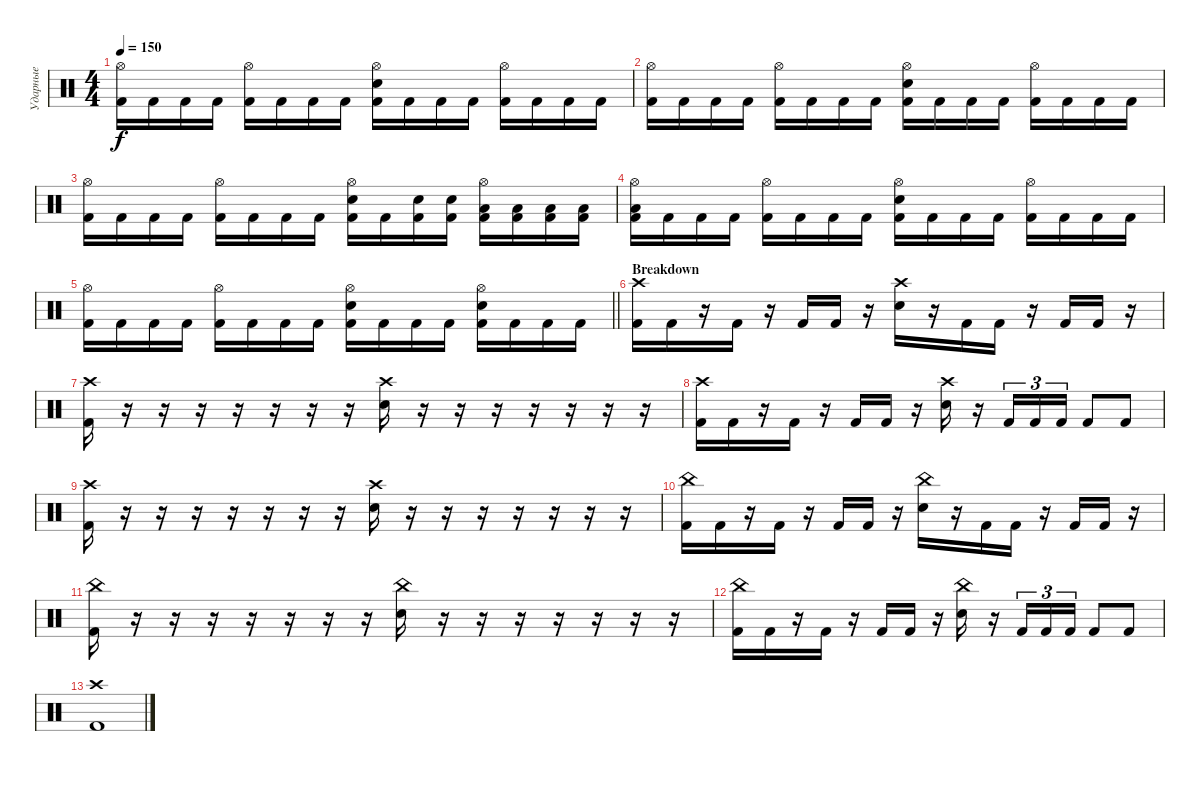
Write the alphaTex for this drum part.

\track ("Ударные" "Ударные") {instrument percussion}
\staff {score}
\articulation defaults
\ts (4 4)
\tempo 150
\clef neutral
\ks c
("Hi-Hat (open)" "Kick (hit) 2").16{dy f} "Kick (hit) 2".16 "Kick (hit) 2".16 "Kick (hit) 2".16 ("Hi-Hat (open)" "Kick (hit) 2").16 "Kick (hit) 2".16 "Kick (hit) 2".16 "Kick (hit) 2".16 ("Hi-Hat (open)" "Electric Snare (hit)" "Kick (hit) 2").16 "Kick (hit) 2".16 "Kick (hit) 2".16 "Kick (hit) 2".16 ("Hi-Hat (open)" "Kick (hit) 2").16 "Kick (hit) 2".16 "Kick (hit) 2".16 "Kick (hit) 2".16 |
("Hi-Hat (open)" "Kick (hit) 2").16 "Kick (hit) 2".16 "Kick (hit) 2".16 "Kick (hit) 2".16 ("Hi-Hat (open)" "Kick (hit) 2").16 "Kick (hit) 2".16 "Kick (hit) 2".16 "Kick (hit) 2".16 ("Hi-Hat (open)" "Electric Snare (hit)" "Kick (hit) 2").16 "Kick (hit) 2".16 "Kick (hit) 2".16 "Kick (hit) 2".16 ("Hi-Hat (open)" "Kick (hit) 2").16 "Kick (hit) 2".16 "Kick (hit) 2".16 "Kick (hit) 2".16 |
("Hi-Hat (open)" "Kick (hit) 2").16 "Kick (hit) 2".16 "Kick (hit) 2".16 "Kick (hit) 2".16 ("Hi-Hat (open)" "Kick (hit) 2").16 "Kick (hit) 2".16 "Kick (hit) 2".16 "Kick (hit) 2".16 ("Hi-Hat (open)" "Electric Snare (hit)" "Kick (hit) 2").16 "Kick (hit) 2".16 ("Electric Snare (hit)" "Kick (hit) 2").16 ("Electric Snare (hit)" "Kick (hit) 2").16 ("Hi-Hat (open)" "Low Tom (hit)" "Kick (hit) 2").16 ("Low Tom (hit)" "Kick (hit) 2").16 ("Low Floor Tom (hit)" "Kick (hit) 2").16 ("Low Floor Tom (hit)" "Kick (hit) 2").16 |
("Hi-Hat (open)" "Low Floor Tom (hit)" "Kick (hit) 2").16 "Kick (hit) 2".16 "Kick (hit) 2".16 "Kick (hit) 2".16 ("Hi-Hat (open)" "Kick (hit) 2").16 "Kick (hit) 2".16 "Kick (hit) 2".16 "Kick (hit) 2".16 ("Hi-Hat (open)" "Electric Snare (hit)" "Kick (hit) 2").16 "Kick (hit) 2".16 "Kick (hit) 2".16 "Kick (hit) 2".16 ("Hi-Hat (open)" "Kick (hit) 2").16 "Kick (hit) 2".16 "Kick (hit) 2".16 "Kick (hit) 2".16 |
\barLineRight lightlight
("Hi-Hat (open)" "Kick (hit) 2").16 "Kick (hit) 2".16 "Kick (hit) 2".16 "Kick (hit) 2".16 ("Hi-Hat (open)" "Kick (hit) 2").16 "Kick (hit) 2".16 "Kick (hit) 2".16 "Kick (hit) 2".16 ("Hi-Hat (open)" "Electric Snare (hit)" "Kick (hit) 2").16 "Kick (hit) 2".16 "Kick (hit) 2".16 "Kick (hit) 2".16 ("Hi-Hat (open)" "Electric Snare (hit)" "Kick (hit) 2").16 "Kick (hit) 2".16 "Kick (hit) 2".16 "Kick (hit) 2".16 |
\section ("" "Breakdown")
("Crash high (hit)" "Kick (hit) 2").16 "Kick (hit) 2".16 r.16 "Kick (hit) 2".16 r.16 "Kick (hit) 2".16 "Kick (hit) 2".16 r.16 ("Crash high (hit)" "Electric Snare (hit)").16 r.16 "Kick (hit) 2".16 "Kick (hit) 2".16 r.16 "Kick (hit) 2".16 "Kick (hit) 2".16 r.16 |
("Crash high (hit)" "Kick (hit) 2").16 r.16 r.16 r.16 r.16 r.16 r.16 r.16 ("Crash high (hit)" "Electric Snare (hit)").16 r.16 r.16 r.16 r.16 r.16 r.16 r.16 |
("Crash high (hit)" "Kick (hit) 2").16 "Kick (hit) 2".16 r.16 "Kick (hit) 2".16 r.16 "Kick (hit) 2".16 "Kick (hit) 2".16 r.16 ("Crash high (hit)" "Electric Snare (hit)").16 r.16 "Kick (hit) 2".16{tu (3 2)} "Kick (hit) 2".16{tu (3 2)} "Kick (hit) 2".16{tu (3 2)} "Kick (hit) 2".8 "Kick (hit) 2".8 |
("Crash high (hit)" "Kick (hit) 2").16 r.16 r.16 r.16 r.16 r.16 r.16 r.16 ("Crash high (hit)" "Electric Snare (hit)").16 r.16 r.16 r.16 r.16 r.16 r.16 r.16 |
("China (hit)" "Kick (hit) 2").16 "Kick (hit) 2".16 r.16 "Kick (hit) 2".16 r.16 "Kick (hit) 2".16 "Kick (hit) 2".16 r.16 ("China (hit)" "Electric Snare (hit)").16 r.16 "Kick (hit) 2".16 "Kick (hit) 2".16 r.16 "Kick (hit) 2".16 "Kick (hit) 2".16 r.16 |
("China (hit)" "Kick (hit) 2").16 r.16 r.16 r.16 r.16 r.16 r.16 r.16 ("China (hit)" "Electric Snare (hit)").16 r.16 r.16 r.16 r.16 r.16 r.16 r.16 |
("China (hit)" "Kick (hit) 2").16 "Kick (hit) 2".16 r.16 "Kick (hit) 2".16 r.16 "Kick (hit) 2".16 "Kick (hit) 2".16 r.16 ("China (hit)" "Electric Snare (hit)").16 r.16 "Kick (hit) 2".16{tu (3 2)} "Kick (hit) 2".16{tu (3 2)} "Kick (hit) 2".16{tu (3 2)} "Kick (hit) 2".8 "Kick (hit) 2".8 |
("Crash high (hit)" "Kick (hit) 2").1
